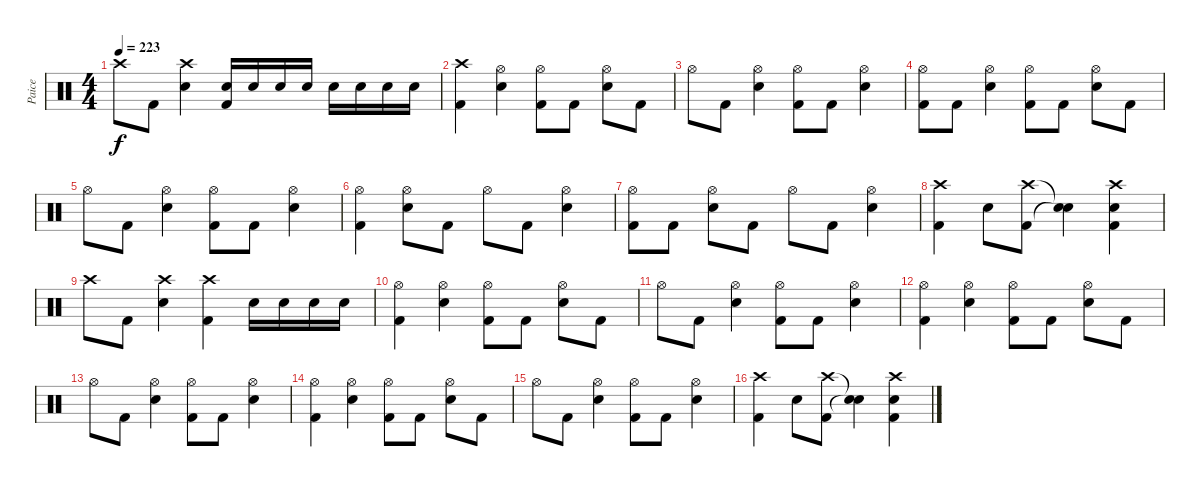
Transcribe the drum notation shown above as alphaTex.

\track ("Paice" "Paice") {instrument percussion}
\staff {score}
\articulation defaults
\ts (4 4)
\tempo 223
\clef neutral
\ks c "Crash high (hit)".8{dy f} "Kick (hit) 2".8
("Crash high (hit)" "Electric Snare (hit)").4 ("Electric Snare (hit)" "Kick (hit) 2").16 "Electric Snare (hit)".16 "Electric Snare (hit)".16 "Electric Snare (hit)".16 "Electric Snare (hit)".16 "Electric Snare (hit)".16 "Electric Snare (hit)".16 "Electric Snare (hit)".16 |
("Crash high (hit)" "Kick (hit) 2").4 ("Hi-Hat (open)" "Electric Snare (hit)").4 ("Hi-Hat (open)" "Kick (hit) 2").8 "Kick (hit) 2".8 ("Hi-Hat (open)" "Electric Snare (hit)").8 "Kick (hit) 2".8 |
"Hi-Hat (open)".8 "Kick (hit) 2".8 ("Hi-Hat (open)" "Electric Snare (hit)").4 ("Hi-Hat (open)" "Kick (hit) 2").8 "Kick (hit) 2".8 ("Hi-Hat (open)" "Electric Snare (hit)").4 |
("Hi-Hat (open)" "Kick (hit) 2").8 "Kick (hit) 2".8 ("Hi-Hat (open)" "Electric Snare (hit)").4 ("Hi-Hat (open)" "Kick (hit) 2").8 "Kick (hit) 2".8 ("Hi-Hat (open)" "Electric Snare (hit)").8 "Kick (hit) 2".8 |
"Hi-Hat (open)".8 "Kick (hit) 2".8 ("Hi-Hat (open)" "Electric Snare (hit)").4 ("Hi-Hat (open)" "Kick (hit) 2").8 "Kick (hit) 2".8 ("Hi-Hat (open)" "Electric Snare (hit)").4 |
("Hi-Hat (open)" "Kick (hit) 2").4 ("Hi-Hat (open)" "Electric Snare (hit)").8 "Kick (hit) 2".8 "Hi-Hat (open)".8 "Kick (hit) 2".8 ("Hi-Hat (open)" "Electric Snare (hit)").4 |
("Hi-Hat (open)" "Kick (hit) 2").8 "Kick (hit) 2".8 ("Hi-Hat (open)" "Electric Snare (hit)").8 "Kick (hit) 2".8 "Hi-Hat (open)".8 "Kick (hit) 2".8 ("Hi-Hat (open)" "Electric Snare (hit)").4 |
("Crash high (hit)" "Kick (hit) 2").4 "Electric Snare (hit)".8 ("Crash high (hit)" "Kick (hit) 2").8 ("Snare (hit)"{t} "Snare (hit)"{t}).4 ("Crash high (hit)" "Electric Snare (hit)" "Kick (hit) 2").4 |
"Crash high (hit)".8 "Kick (hit) 2".8 ("Crash high (hit)" "Electric Snare (hit)").4 ("Crash high (hit)" "Kick (hit) 2").4 "Electric Snare (hit)".16 "Electric Snare (hit)".16 "Electric Snare (hit)".16 "Electric Snare (hit)".16 |
("Hi-Hat (open)" "Kick (hit) 2").4 ("Hi-Hat (open)" "Electric Snare (hit)").4 ("Hi-Hat (open)" "Kick (hit) 2").8 "Kick (hit) 2".8 ("Hi-Hat (open)" "Electric Snare (hit)").8 "Kick (hit) 2".8 |
"Hi-Hat (open)".8 "Kick (hit) 2".8 ("Hi-Hat (open)" "Electric Snare (hit)").4 ("Hi-Hat (open)" "Kick (hit) 2").8 "Kick (hit) 2".8 ("Hi-Hat (open)" "Electric Snare (hit)").4 |
("Hi-Hat (open)" "Kick (hit) 2").4 ("Hi-Hat (open)" "Electric Snare (hit)").4 ("Hi-Hat (open)" "Kick (hit) 2").8 "Kick (hit) 2".8 ("Hi-Hat (open)" "Electric Snare (hit)").8 "Kick (hit) 2".8 |
"Hi-Hat (open)".8 "Kick (hit) 2".8 ("Hi-Hat (open)" "Electric Snare (hit)").4 ("Hi-Hat (open)" "Kick (hit) 2").8 "Kick (hit) 2".8 ("Hi-Hat (open)" "Electric Snare (hit)").4 |
("Hi-Hat (open)" "Kick (hit) 2").4 ("Hi-Hat (open)" "Electric Snare (hit)").4 ("Hi-Hat (open)" "Kick (hit) 2").8 "Kick (hit) 2".8 ("Hi-Hat (open)" "Electric Snare (hit)").8 "Kick (hit) 2".8 |
"Hi-Hat (open)".8 "Kick (hit) 2".8 ("Hi-Hat (open)" "Electric Snare (hit)").4 ("Hi-Hat (open)" "Kick (hit) 2").8 "Kick (hit) 2".8 ("Hi-Hat (open)" "Electric Snare (hit)").4 |
("Crash high (hit)" "Kick (hit) 2").4 "Electric Snare (hit)".8 ("Crash high (hit)" "Kick (hit) 2").8 ("Snare (hit)"{t} "Snare (hit)"{t}).4 ("Crash high (hit)" "Electric Snare (hit)" "Kick (hit) 2").4
